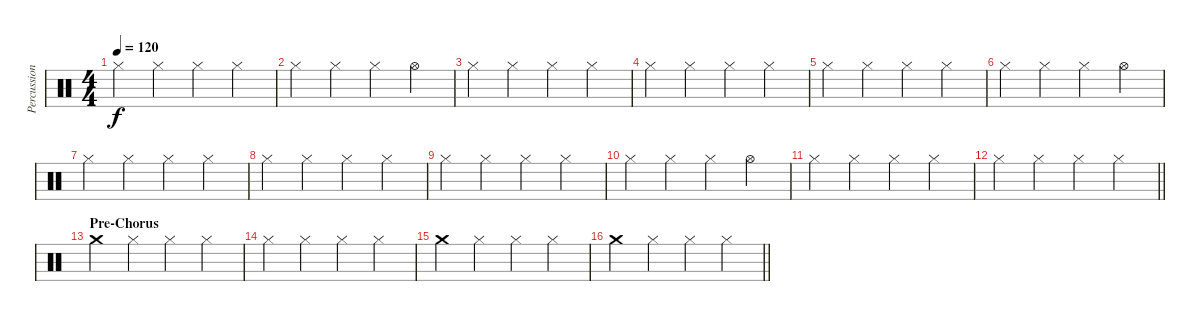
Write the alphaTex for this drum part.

\track ("Percussion" "Percussion") {instrument percussion}
\staff {score}
\articulation defaults
\ts (4 4)
\tempo 120
\clef neutral
\ks c "Hi-Hat (closed)".4{dy f} "Hi-Hat (closed)".4 "Hi-Hat (closed)".4 "Hi-Hat (closed)".4
|
"Hi-Hat (closed)".4 "Hi-Hat (closed)".4 "Hi-Hat (closed)".4 "Hi-Hat (open)".4 |
"Hi-Hat (closed)".4 "Hi-Hat (closed)".4 "Hi-Hat (closed)".4 "Hi-Hat (closed)".4 |
"Hi-Hat (closed)".4 "Hi-Hat (closed)".4 "Hi-Hat (closed)".4 "Hi-Hat (closed)".4 |
"Hi-Hat (closed)".4 "Hi-Hat (closed)".4 "Hi-Hat (closed)".4 "Hi-Hat (closed)".4 |
"Hi-Hat (closed)".4 "Hi-Hat (closed)".4 "Hi-Hat (closed)".4 "Hi-Hat (open)".4 |
"Hi-Hat (closed)".4 "Hi-Hat (closed)".4 "Hi-Hat (closed)".4 "Hi-Hat (closed)".4 |
"Hi-Hat (closed)".4 "Hi-Hat (closed)".4 "Hi-Hat (closed)".4 "Hi-Hat (closed)".4 |
"Hi-Hat (closed)".4 "Hi-Hat (closed)".4 "Hi-Hat (closed)".4 "Hi-Hat (closed)".4 |
"Hi-Hat (closed)".4 "Hi-Hat (closed)".4 "Hi-Hat (closed)".4 "Hi-Hat (open)".4 |
"Hi-Hat (closed)".4 "Hi-Hat (closed)".4 "Hi-Hat (closed)".4 "Hi-Hat (closed)".4 |
\barLineRight lightlight "Hi-Hat (closed)".4 "Hi-Hat (closed)".4 "Hi-Hat (closed)".4 "Hi-Hat (closed)".4
|
\section ("" "Pre-Chorus")
"Crash medium (hit)".4 "Hi-Hat (closed)".4 "Hi-Hat (closed)".4 "Hi-Hat (closed)".4 |
"Hi-Hat (closed)".4 "Hi-Hat (closed)".4 "Hi-Hat (closed)".4 "Hi-Hat (closed)".4 |
"Crash medium (hit)".4 "Hi-Hat (closed)".4 "Hi-Hat (closed)".4 "Hi-Hat (closed)".4 |
\barLineRight lightlight "Crash medium (hit)".4 "Hi-Hat (closed)".4 "Hi-Hat (closed)".4 "Hi-Hat (closed)".4
